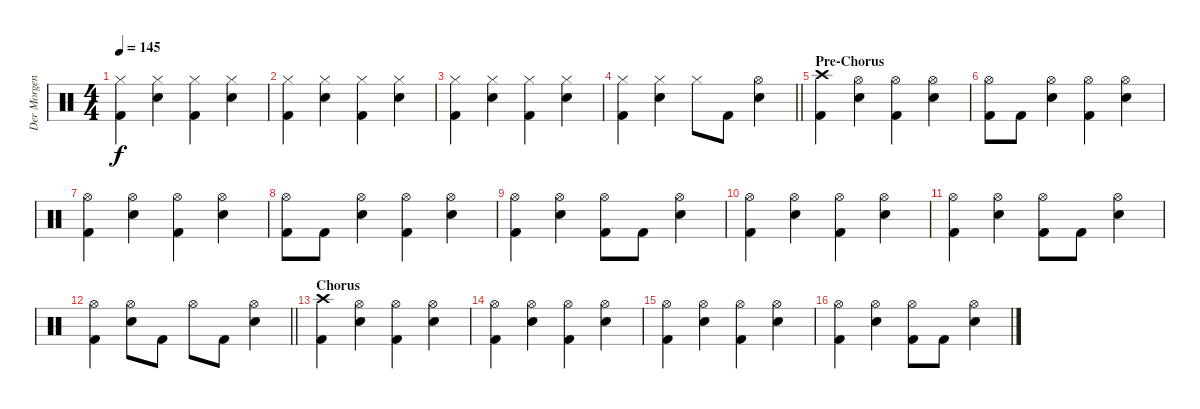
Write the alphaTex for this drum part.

\track ("Der Morgenstern" "Der Morgen") {instrument percussion}
\staff {score}
\articulation defaults
\ts (4 4)
\tempo 145
\clef neutral
\ks c
("Hi-Hat (closed)" "Kick (hit) 2").4{dy f} ("Hi-Hat (closed)" "Electric Snare (hit)").4 ("Hi-Hat (closed)" "Kick (hit) 2").4 ("Hi-Hat (closed)" "Electric Snare (hit)").4 |
("Hi-Hat (closed)" "Kick (hit) 2").4 ("Hi-Hat (closed)" "Electric Snare (hit)").4 ("Hi-Hat (closed)" "Kick (hit) 2").4 ("Hi-Hat (closed)" "Electric Snare (hit)").4 |
("Hi-Hat (closed)" "Kick (hit) 2").4 ("Hi-Hat (closed)" "Electric Snare (hit)").4 ("Hi-Hat (closed)" "Kick (hit) 2").4 ("Hi-Hat (closed)" "Electric Snare (hit)").4 |
\barLineRight lightlight
("Hi-Hat (closed)" "Kick (hit) 2").4 ("Hi-Hat (closed)" "Electric Snare (hit)").4 "Hi-Hat (closed)".8 "Kick (hit) 2".8 ("Hi-Hat (open)" "Electric Snare (hit)").4 |
\section ("" "Pre-Chorus")
("Crash high (hit)" "Kick (hit) 2").4 ("Hi-Hat (open)" "Electric Snare (hit)").4 ("Hi-Hat (open)" "Kick (hit) 2").4 ("Hi-Hat (open)" "Electric Snare (hit)").4 |
("Hi-Hat (open)" "Kick (hit) 2").8 "Kick (hit) 2".8 ("Hi-Hat (open)" "Electric Snare (hit)").4 ("Hi-Hat (open)" "Kick (hit) 2").4 ("Hi-Hat (open)" "Electric Snare (hit)").4 |
("Hi-Hat (open)" "Kick (hit) 2").4 ("Hi-Hat (open)" "Electric Snare (hit)").4 ("Hi-Hat (open)" "Kick (hit) 2").4 ("Hi-Hat (open)" "Electric Snare (hit)").4 |
("Hi-Hat (open)" "Kick (hit) 2").8 "Kick (hit) 2".8 ("Hi-Hat (open)" "Electric Snare (hit)").4 ("Hi-Hat (open)" "Kick (hit) 2").4 ("Hi-Hat (open)" "Electric Snare (hit)").4 |
("Hi-Hat (open)" "Kick (hit) 2").4 ("Hi-Hat (open)" "Electric Snare (hit)").4 ("Hi-Hat (open)" "Kick (hit) 2").8 "Kick (hit) 2".8 ("Hi-Hat (open)" "Electric Snare (hit)").4 |
("Hi-Hat (open)" "Kick (hit) 2").4 ("Hi-Hat (open)" "Electric Snare (hit)").4 ("Hi-Hat (open)" "Kick (hit) 2").4 ("Hi-Hat (open)" "Electric Snare (hit)").4 |
("Hi-Hat (open)" "Kick (hit) 2").4 ("Hi-Hat (open)" "Electric Snare (hit)").4 ("Hi-Hat (open)" "Kick (hit) 2").8 "Kick (hit) 2".8 ("Hi-Hat (open)" "Electric Snare (hit)").4 |
\barLineRight lightlight
("Hi-Hat (open)" "Kick (hit) 2").4 ("Hi-Hat (open)" "Electric Snare (hit)").8 "Kick (hit) 2".8 "Hi-Hat (open)".8 "Kick (hit) 2".8 ("Hi-Hat (open)" "Electric Snare (hit)").4 |
\section ("" "Chorus")
("Crash high (hit)" "Kick (hit) 2").4 ("Hi-Hat (open)" "Electric Snare (hit)").4 ("Hi-Hat (open)" "Kick (hit) 2").4 ("Hi-Hat (open)" "Electric Snare (hit)").4 |
("Hi-Hat (open)" "Kick (hit) 2").4 ("Hi-Hat (open)" "Electric Snare (hit)").4 ("Hi-Hat (open)" "Kick (hit) 2").4 ("Hi-Hat (open)" "Electric Snare (hit)").4 |
("Hi-Hat (open)" "Kick (hit) 2").4 ("Hi-Hat (open)" "Electric Snare (hit)").4 ("Hi-Hat (open)" "Kick (hit) 2").4 ("Hi-Hat (open)" "Electric Snare (hit)").4 |
("Hi-Hat (open)" "Kick (hit) 2").4 ("Hi-Hat (open)" "Electric Snare (hit)").4 ("Hi-Hat (open)" "Kick (hit) 2").8 "Kick (hit) 2".8 ("Hi-Hat (open)" "Electric Snare (hit)").4
